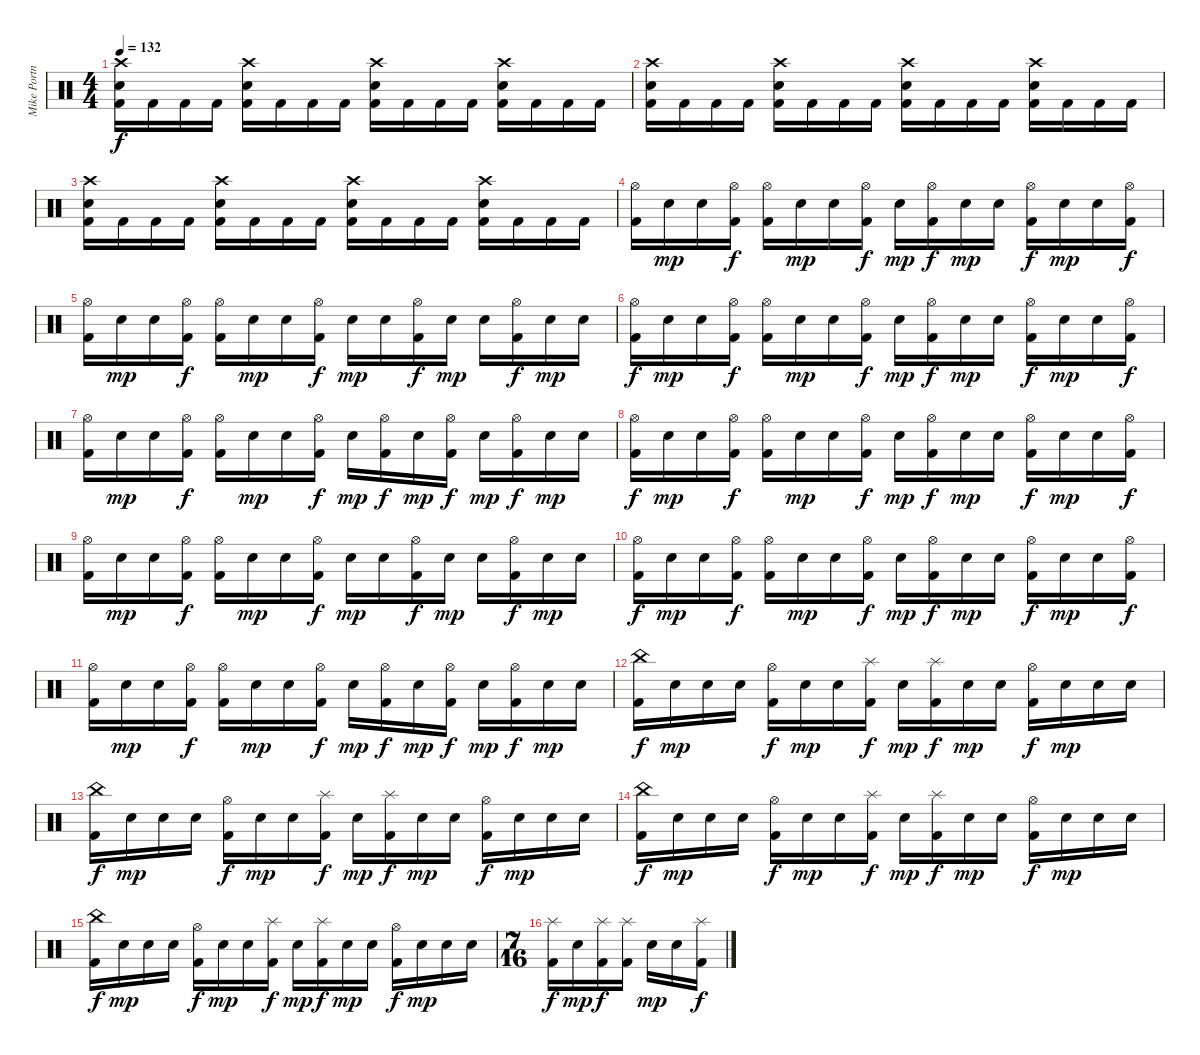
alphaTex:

\track ("Mike Portnoy" "Mike Portn") {instrument percussion}
\staff {score}
\articulation defaults
\ts (4 4)
\tempo 132
\clef neutral
\ks c
("Crash high (hit)" "Snare (hit) 2" "Kick (hit) 2").16{dy f} "Kick (hit) 2".16 "Kick (hit) 2".16 "Kick (hit) 2".16 ("Crash high (hit)" "Snare (hit) 2" "Kick (hit) 2").16 "Kick (hit) 2".16 "Kick (hit) 2".16 "Kick (hit) 2".16 ("Crash high (hit)" "Snare (hit) 2" "Kick (hit) 2").16 "Kick (hit) 2".16 "Kick (hit) 2".16 "Kick (hit) 2".16 ("Crash high (hit)" "Snare (hit) 2" "Kick (hit) 2").16 "Kick (hit) 2".16 "Kick (hit) 2".16 "Kick (hit) 2".16 |
("Crash high (hit)" "Snare (hit) 2" "Kick (hit) 2").16 "Kick (hit) 2".16 "Kick (hit) 2".16 "Kick (hit) 2".16 ("Crash high (hit)" "Snare (hit) 2" "Kick (hit) 2").16 "Kick (hit) 2".16 "Kick (hit) 2".16 "Kick (hit) 2".16 ("Crash high (hit)" "Snare (hit) 2" "Kick (hit) 2").16 "Kick (hit) 2".16 "Kick (hit) 2".16 "Kick (hit) 2".16 ("Crash high (hit)" "Snare (hit) 2" "Kick (hit) 2").16 "Kick (hit) 2".16 "Kick (hit) 2".16 "Kick (hit) 2".16 |
("Crash high (hit)" "Snare (hit) 2" "Kick (hit) 2").16 "Kick (hit) 2".16 "Kick (hit) 2".16 "Kick (hit) 2".16 ("Crash high (hit)" "Snare (hit) 2" "Kick (hit) 2").16 "Kick (hit) 2".16 "Kick (hit) 2".16 "Kick (hit) 2".16 ("Crash high (hit)" "Snare (hit) 2" "Kick (hit) 2").16 "Kick (hit) 2".16 "Kick (hit) 2".16 "Kick (hit) 2".16 ("Crash high (hit)" "Snare (hit) 2" "Kick (hit) 2").16 "Kick (hit) 2".16 "Kick (hit) 2".16 "Kick (hit) 2".16 |
("Hi-Hat (open)" "Kick (hit) 2").16 "Snare (hit) 2".16{dy mp} "Snare (hit) 2".16 ("Hi-Hat (open)" "Kick (hit) 2").16{dy f} ("Hi-Hat (open)" "Kick (hit) 2").16 "Snare (hit) 2".16{dy mp} "Snare (hit) 2".16 ("Hi-Hat (open)" "Kick (hit) 2").16{dy f} "Snare (hit) 2".16{dy mp} ("Hi-Hat (open)" "Kick (hit) 2").16{dy f} "Snare (hit) 2".16{dy mp} "Snare (hit) 2".16 ("Hi-Hat (open)" "Kick (hit) 2").16{dy f} "Snare (hit) 2".16{dy mp} "Snare (hit) 2".16 ("Hi-Hat (open)" "Kick (hit) 2").16{dy f} |
("Hi-Hat (open)" "Kick (hit) 2").16 "Snare (hit) 2".16{dy mp} "Snare (hit) 2".16 ("Hi-Hat (open)" "Kick (hit) 2").16{dy f} ("Hi-Hat (open)" "Kick (hit) 2").16 "Snare (hit) 2".16{dy mp} "Snare (hit) 2".16 ("Hi-Hat (open)" "Kick (hit) 2").16{dy f} "Snare (hit) 2".16{dy mp} "Snare (hit) 2".16 ("Hi-Hat (open)" "Kick (hit) 2").16{dy f} "Snare (hit) 2".16{dy mp} "Snare (hit) 2".16 ("Hi-Hat (open)" "Kick (hit) 2").16{dy f} "Snare (hit) 2".16{dy mp} "Snare (hit) 2".16 |
("Hi-Hat (open)" "Kick (hit) 2").16{dy f} "Snare (hit) 2".16{dy mp} "Snare (hit) 2".16 ("Hi-Hat (open)" "Kick (hit) 2").16{dy f} ("Hi-Hat (open)" "Kick (hit) 2").16 "Snare (hit) 2".16{dy mp} "Snare (hit) 2".16 ("Hi-Hat (open)" "Kick (hit) 2").16{dy f} "Snare (hit) 2".16{dy mp} ("Hi-Hat (open)" "Kick (hit) 2").16{dy f} "Snare (hit) 2".16{dy mp} "Snare (hit) 2".16 ("Hi-Hat (open)" "Kick (hit) 2").16{dy f} "Snare (hit) 2".16{dy mp} "Snare (hit) 2".16 ("Hi-Hat (open)" "Kick (hit) 2").16{dy f} |
("Hi-Hat (open)" "Kick (hit) 2").16 "Snare (hit) 2".16{dy mp} "Snare (hit) 2".16 ("Hi-Hat (open)" "Kick (hit) 2").16{dy f} ("Hi-Hat (open)" "Kick (hit) 2").16 "Snare (hit) 2".16{dy mp} "Snare (hit) 2".16 ("Hi-Hat (open)" "Kick (hit) 2").16{dy f} "Snare (hit) 2".16{dy mp} ("Hi-Hat (open)" "Kick (hit) 2").16{dy f} "Snare (hit) 2".16{dy mp} ("Hi-Hat (open)" "Kick (hit) 2").16{dy f} "Snare (hit) 2".16{dy mp} ("Hi-Hat (open)" "Kick (hit) 2").16{dy f} "Snare (hit) 2".16{dy mp} "Snare (hit) 2".16 |
("Hi-Hat (open)" "Kick (hit) 2").16{dy f} "Snare (hit) 2".16{dy mp} "Snare (hit) 2".16 ("Hi-Hat (open)" "Kick (hit) 2").16{dy f} ("Hi-Hat (open)" "Kick (hit) 2").16 "Snare (hit) 2".16{dy mp} "Snare (hit) 2".16 ("Hi-Hat (open)" "Kick (hit) 2").16{dy f} "Snare (hit) 2".16{dy mp} ("Hi-Hat (open)" "Kick (hit) 2").16{dy f} "Snare (hit) 2".16{dy mp} "Snare (hit) 2".16 ("Hi-Hat (open)" "Kick (hit) 2").16{dy f} "Snare (hit) 2".16{dy mp} "Snare (hit) 2".16 ("Hi-Hat (open)" "Kick (hit) 2").16{dy f} |
("Hi-Hat (open)" "Kick (hit) 2").16 "Snare (hit) 2".16{dy mp} "Snare (hit) 2".16 ("Hi-Hat (open)" "Kick (hit) 2").16{dy f} ("Hi-Hat (open)" "Kick (hit) 2").16 "Snare (hit) 2".16{dy mp} "Snare (hit) 2".16 ("Hi-Hat (open)" "Kick (hit) 2").16{dy f} "Snare (hit) 2".16{dy mp} "Snare (hit) 2".16 ("Hi-Hat (open)" "Kick (hit) 2").16{dy f} "Snare (hit) 2".16{dy mp} "Snare (hit) 2".16 ("Hi-Hat (open)" "Kick (hit) 2").16{dy f} "Snare (hit) 2".16{dy mp} "Snare (hit) 2".16 |
("Hi-Hat (open)" "Kick (hit) 2").16{dy f} "Snare (hit) 2".16{dy mp} "Snare (hit) 2".16 ("Hi-Hat (open)" "Kick (hit) 2").16{dy f} ("Hi-Hat (open)" "Kick (hit) 2").16 "Snare (hit) 2".16{dy mp} "Snare (hit) 2".16 ("Hi-Hat (open)" "Kick (hit) 2").16{dy f} "Snare (hit) 2".16{dy mp} ("Hi-Hat (open)" "Kick (hit) 2").16{dy f} "Snare (hit) 2".16{dy mp} "Snare (hit) 2".16 ("Hi-Hat (open)" "Kick (hit) 2").16{dy f} "Snare (hit) 2".16{dy mp} "Snare (hit) 2".16 ("Hi-Hat (open)" "Kick (hit) 2").16{dy f} |
("Hi-Hat (open)" "Kick (hit) 2").16 "Snare (hit) 2".16{dy mp} "Snare (hit) 2".16 ("Hi-Hat (open)" "Kick (hit) 2").16{dy f} ("Hi-Hat (open)" "Kick (hit) 2").16 "Snare (hit) 2".16{dy mp} "Snare (hit) 2".16 ("Hi-Hat (open)" "Kick (hit) 2").16{dy f} "Snare (hit) 2".16{dy mp} ("Hi-Hat (open)" "Kick (hit) 2").16{dy f} "Snare (hit) 2".16{dy mp} ("Hi-Hat (open)" "Kick (hit) 2").16{dy f} "Snare (hit) 2".16{dy mp} ("Hi-Hat (open)" "Kick (hit) 2").16{dy f} "Snare (hit) 2".16{dy mp} "Snare (hit) 2".16 |
("China (hit)" "Kick (hit) 2").16{dy f} "Snare (hit) 2".16{dy mp} "Snare (hit) 2".16 "Snare (hit) 2".16 ("Hi-Hat (open)" "Kick (hit) 2").16{dy f} "Snare (hit) 2".16{dy mp} "Snare (hit) 2".16 ("Splash (hit)" "Kick (hit) 2").16{dy f} "Snare (hit) 2".16{dy mp} ("Splash (hit)" "Kick (hit) 2").16{dy f} "Snare (hit) 2".16{dy mp} "Snare (hit) 2".16 ("Hi-Hat (open)" "Kick (hit) 2").16{dy f} "Snare (hit) 2".16{dy mp} "Snare (hit) 2".16 "Snare (hit) 2".16 |
("China (hit)" "Kick (hit) 2").16{dy f} "Snare (hit) 2".16{dy mp} "Snare (hit) 2".16 "Snare (hit) 2".16 ("Hi-Hat (open)" "Kick (hit) 2").16{dy f} "Snare (hit) 2".16{dy mp} "Snare (hit) 2".16 ("Splash (hit)" "Kick (hit) 2").16{dy f} "Snare (hit) 2".16{dy mp} ("Splash (hit)" "Kick (hit) 2").16{dy f} "Snare (hit) 2".16{dy mp} "Snare (hit) 2".16 ("Hi-Hat (open)" "Kick (hit) 2").16{dy f} "Snare (hit) 2".16{dy mp} "Snare (hit) 2".16 "Snare (hit) 2".16 |
("China (hit)" "Kick (hit) 2").16{dy f} "Snare (hit) 2".16{dy mp} "Snare (hit) 2".16 "Snare (hit) 2".16 ("Hi-Hat (open)" "Kick (hit) 2").16{dy f} "Snare (hit) 2".16{dy mp} "Snare (hit) 2".16 ("Splash (hit)" "Kick (hit) 2").16{dy f} "Snare (hit) 2".16{dy mp} ("Splash (hit)" "Kick (hit) 2").16{dy f} "Snare (hit) 2".16{dy mp} "Snare (hit) 2".16 ("Hi-Hat (open)" "Kick (hit) 2").16{dy f} "Snare (hit) 2".16{dy mp} "Snare (hit) 2".16 "Snare (hit) 2".16 |
("China (hit)" "Kick (hit) 2").16{dy f} "Snare (hit) 2".16{dy mp} "Snare (hit) 2".16 "Snare (hit) 2".16 ("Hi-Hat (open)" "Kick (hit) 2").16{dy f} "Snare (hit) 2".16{dy mp} "Snare (hit) 2".16 ("Splash (hit)" "Kick (hit) 2").16{dy f} "Snare (hit) 2".16{dy mp} ("Splash (hit)" "Kick (hit) 2").16{dy f} "Snare (hit) 2".16{dy mp} "Snare (hit) 2".16 ("Hi-Hat (open)" "Kick (hit) 2").16{dy f} "Snare (hit) 2".16{dy mp} "Snare (hit) 2".16 "Snare (hit) 2".16 |
\ts (7 16)
("Splash (hit)" "Kick (hit) 2").16{dy f} "Snare (hit) 2".16{dy mp} ("Splash (hit)" "Kick (hit) 2").16{dy f} ("Splash (hit)" "Kick (hit) 2").16 "Snare (hit) 2".16{dy mp} "Snare (hit) 2".16 ("Splash (hit)" "Kick (hit) 2").16{dy f}
